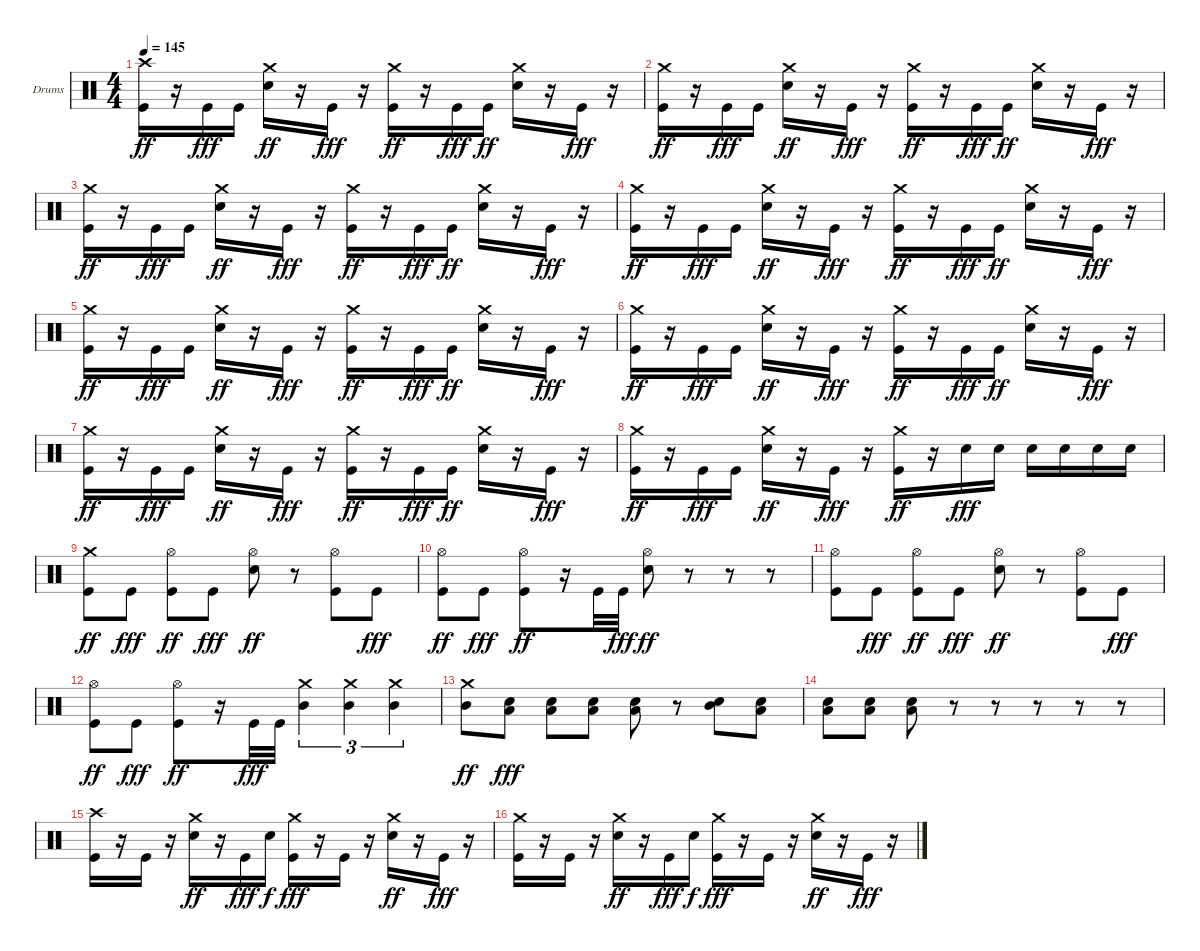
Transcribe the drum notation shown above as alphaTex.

\defaultSystemsLayout 4
\bracketExtendMode groupsimilarinstruments
\firstSystemTrackNameOrientation horizontal
\otherSystemsTrackNameOrientation horizontal
\track ("Drumkit" "Drums") {instrument percussion}
\staff {score}
\articulation defaults
\ts (4 4)
\tempo 145
\clef neutral
\scale
0.333333
\ks c
("Crash high (hit)" "Kick (hit)").16{dy ff} r.16 "Kick (hit)".16{dy fff} "Kick (hit)".16 ("Crash medium (hit)" "Snare (hit) 2").16{dy ff} r.16 "Kick (hit)".16{dy fff} r.16 ("Crash medium (hit)" "Kick (hit)").16{dy ff} r.16 "Kick (hit)".16{dy fff} "Kick (hit)".16{dy ff} ("Crash medium (hit)" "Snare (hit) 2").16 r.16 "Kick (hit)".16{dy fff} r.16 |
\scale
0.333333 ("Crash medium (hit)" "Kick (hit)").16{dy ff} r.16 "Kick (hit)".16{dy fff} "Kick (hit)".16 ("Crash medium (hit)" "Snare (hit) 2").16{dy ff} r.16 "Kick (hit)".16{dy fff} r.16 ("Crash medium (hit)" "Kick (hit)").16{dy ff} r.16 "Kick (hit)".16{dy fff} "Kick (hit)".16{dy ff} ("Crash medium (hit)" "Snare (hit) 2").16 r.16 "Kick (hit)".16{dy fff} r.16 |
\scale
0.333333 ("Crash medium (hit)" "Kick (hit)").16{dy ff} r.16 "Kick (hit)".16{dy fff} "Kick (hit)".16 ("Crash medium (hit)" "Snare (hit) 2").16{dy ff} r.16 "Kick (hit)".16{dy fff} r.16 ("Crash medium (hit)" "Kick (hit)").16{dy ff} r.16 "Kick (hit)".16{dy fff} "Kick (hit)".16{dy ff} ("Crash medium (hit)" "Snare (hit) 2").16 r.16 "Kick (hit)".16{dy fff} r.16 |
\scale
0.333333 ("Crash medium (hit)" "Kick (hit)").16{dy ff} r.16 "Kick (hit)".16{dy fff} "Kick (hit)".16 ("Crash medium (hit)" "Snare (hit) 2").16{dy ff} r.16 "Kick (hit)".16{dy fff} r.16 ("Crash medium (hit)" "Kick (hit)").16{dy ff} r.16 "Kick (hit)".16{dy fff} "Kick (hit)".16{dy ff} ("Crash medium (hit)" "Snare (hit) 2").16 r.16 "Kick (hit)".16{dy fff} r.16 |
\scale
0.333333 ("Crash medium (hit)" "Kick (hit)").16{dy ff} r.16 "Kick (hit)".16{dy fff} "Kick (hit)".16 ("Crash medium (hit)" "Snare (hit) 2").16{dy ff} r.16 "Kick (hit)".16{dy fff} r.16 ("Crash medium (hit)" "Kick (hit)").16{dy ff} r.16 "Kick (hit)".16{dy fff} "Kick (hit)".16{dy ff} ("Crash medium (hit)" "Snare (hit) 2").16 r.16 "Kick (hit)".16{dy fff} r.16 |
\scale
0.333333 ("Crash medium (hit)" "Kick (hit)").16{dy ff} r.16 "Kick (hit)".16{dy fff} "Kick (hit)".16 ("Crash medium (hit)" "Snare (hit) 2").16{dy ff} r.16 "Kick (hit)".16{dy fff} r.16 ("Crash medium (hit)" "Kick (hit)").16{dy ff} r.16 "Kick (hit)".16{dy fff} "Kick (hit)".16{dy ff} ("Crash medium (hit)" "Snare (hit) 2").16 r.16 "Kick (hit)".16{dy fff} r.16 |
\scale
0.333333 ("Crash medium (hit)" "Kick (hit)").16{dy ff} r.16 "Kick (hit)".16{dy fff} "Kick (hit)".16 ("Crash medium (hit)" "Snare (hit) 2").16{dy ff} r.16 "Kick (hit)".16{dy fff} r.16 ("Crash medium (hit)" "Kick (hit)").16{dy ff} r.16 "Kick (hit)".16{dy fff} "Kick (hit)".16{dy ff} ("Crash medium (hit)" "Snare (hit) 2").16 r.16 "Kick (hit)".16{dy fff} r.16 |
\scale
0.333333 ("Crash medium (hit)" "Kick (hit)").16{dy ff} r.16 "Kick (hit)".16{dy fff} "Kick (hit)".16 ("Crash medium (hit)" "Snare (hit) 2").16{dy ff} r.16 "Kick (hit)".16{dy fff} r.16 ("Crash medium (hit)" "Kick (hit)").16{dy ff} r.16 "Snare (hit) 2".16{dy fff} "Snare (hit) 2".16 "Snare (hit) 2".16 "Snare (hit) 2".16 "Snare (hit) 2".16 "Snare (hit) 2".16 |
\scale
0.333333 ("Crash medium (hit)" "Kick (hit)").8{dy ff} "Kick (hit)".8{dy fff} ("Hi-Hat (open)" "Kick (hit)").8{dy ff} "Kick (hit)".8{dy fff} ("Hi-Hat (open)" "Snare (hit) 2").8{dy ff} r.8 ("Hi-Hat (open)" "Kick (hit)").8 "Kick (hit)".8{dy fff} |
\scale
0.333333 ("Hi-Hat (open)" "Kick (hit)").8{dy ff} "Kick (hit)".8{dy fff} ("Hi-Hat (open)" "Kick (hit)").8{dy ff} r.16 "Kick (hit)".32 "Kick (hit)".32{dy fff} ("Hi-Hat (open)" "Snare (hit) 2").8{dy ff} r.8 r.8 r.8 |
\scale
0.333333 ("Hi-Hat (open)" "Kick (hit)").8 "Kick (hit)".8{dy fff} ("Hi-Hat (open)" "Kick (hit)").8{dy ff} "Kick (hit)".8{dy fff} ("Hi-Hat (open)" "Snare (hit) 2").8{dy ff} r.8 ("Hi-Hat (open)" "Kick (hit)").8 "Kick (hit)".8{dy fff} |
\scale
0.333333 ("Hi-Hat (open)" "Kick (hit)").8{dy ff} "Kick (hit)".8{dy fff} ("Hi-Hat (open)" "Kick (hit)").8{dy ff} r.16 "Kick (hit)".32{dy fff} "Kick (hit)".32 ("Crash medium (hit)" "Mid Tom (hit)").4{tu (3 2)} ("Crash medium (hit)" "Mid Tom (hit)").4{tu (3 2)} ("Crash medium (hit)" "Mid Tom (hit)").4{tu (3 2)} |
\scale
0.333333 ("Crash medium (hit)" "Mid Tom (hit)").8{dy ff} ("Low Tom (hit)" "Snare (hit) 2").8{dy fff} ("Low Tom (hit)" "Snare (hit) 2").8 ("Low Tom (hit)" "Snare (hit) 2").8 ("Low Tom (hit)" "Snare (hit) 2").8 r.8 ("Mid Tom (hit)" "Snare (hit) 2").8 ("Low Tom (hit)" "Snare (hit) 2").8 |
\scale
0.333333 ("Low Tom (hit)" "Snare (hit) 2").8 ("Low Tom (hit)" "Snare (hit) 2").8 ("Low Tom (hit)" "Snare (hit) 2").8 r.8 r.8 r.8 r.8 r.8 |
\scale
0.333333 ("Kick (hit)" "Crash high (hit)").16 r.16 "Kick (hit)".16 r.16 ("Snare (hit) 2" "Crash medium (hit)").16{dy ff} r.16 "Kick (hit)".16{dy fff} "Snare (hit) 2".16{dy f} ("Kick (hit)" "Crash medium (hit)").16{dy fff} r.16 "Kick (hit)".16 r.16 ("Snare (hit) 2" "Crash medium (hit)").16{dy ff} r.16 "Kick (hit)".16{dy fff} r.16 |
\scale
0.333333 ("Kick (hit)" "Crash medium (hit)").16 r.16 "Kick (hit)".16 r.16 ("Snare (hit) 2" "Crash medium (hit)").16{dy ff} r.16 "Kick (hit)".16{dy fff} "Snare (hit) 2".16{dy f} ("Kick (hit)" "Crash medium (hit)").16{dy fff} r.16 "Kick (hit)".16 r.16 ("Snare (hit) 2" "Crash medium (hit)").16{dy ff} r.16 "Kick (hit)".16{dy fff} r.16
